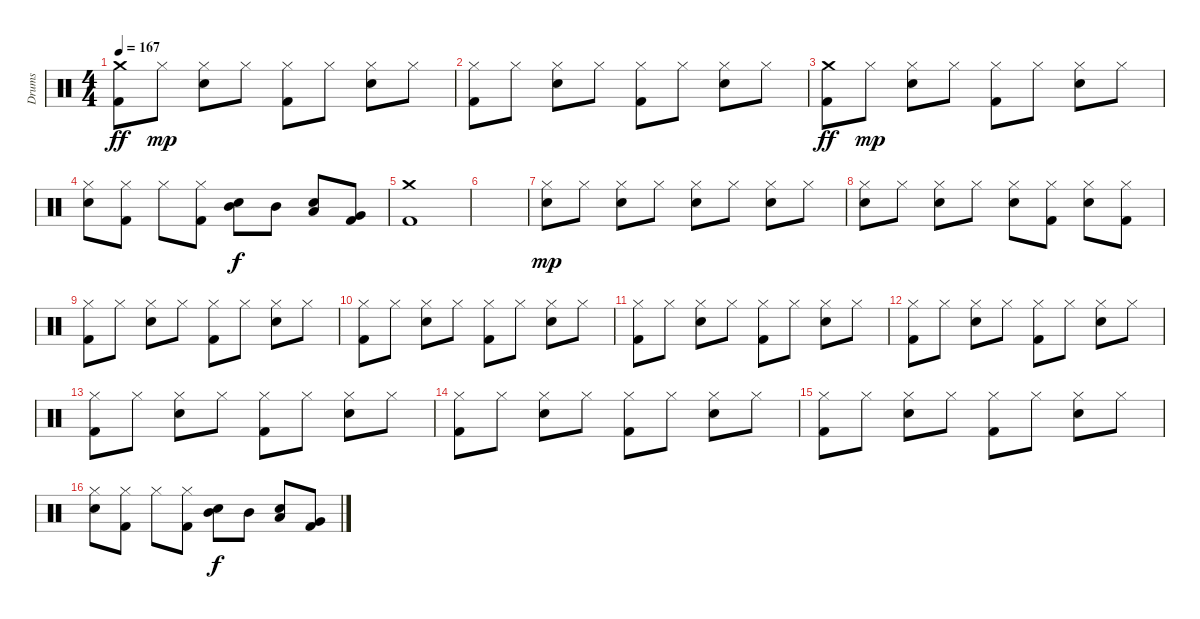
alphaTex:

\track ("Drums" "Drums") {instrument percussion}
\staff {score}
\articulation defaults
\ts (4 4)
\tempo 167
\clef neutral
\ks c
("Crash medium (hit)" "Kick (hit) 2").8{dy ff} "Hi-Hat (closed)".8{dy mp} ("Hi-Hat (closed)" "Snare (hit) 2").8 "Hi-Hat (closed)".8 ("Hi-Hat (closed)" "Kick (hit) 2").8 "Hi-Hat (closed)".8 ("Hi-Hat (closed)" "Snare (hit) 2").8 "Hi-Hat (closed)".8 |
("Hi-Hat (closed)" "Kick (hit) 2").8 "Hi-Hat (closed)".8 ("Hi-Hat (closed)" "Snare (hit) 2").8 "Hi-Hat (closed)".8 ("Hi-Hat (closed)" "Kick (hit) 2").8 "Hi-Hat (closed)".8 ("Hi-Hat (closed)" "Snare (hit) 2").8 "Hi-Hat (closed)".8 |
("Crash medium (hit)" "Kick (hit) 2").8{dy ff} "Hi-Hat (closed)".8{dy mp} ("Hi-Hat (closed)" "Snare (hit) 2").8 "Hi-Hat (closed)".8 ("Hi-Hat (closed)" "Kick (hit) 2").8 "Hi-Hat (closed)".8 ("Hi-Hat (closed)" "Snare (hit) 2").8 "Hi-Hat (closed)".8 |
("Hi-Hat (closed)" "Snare (hit) 2").8 ("Hi-Hat (closed)" "Kick (hit) 2").8 "Hi-Hat (closed)".8 ("Hi-Hat (closed)" "Kick (hit) 2").8 ("Mid Tom (hit)" "Snare (hit) 2").8{dy f} "Mid Tom (hit)".8 ("Low Tom (hit)" "Snare (hit) 2").8 ("Very Low Tom (hit)" "Kick (hit) 2").8 |
("Crash medium (hit)" "Kick (hit) 2").1 |
|
("Hi-Hat (closed)" "Snare (hit) 2").8{dy mp} "Hi-Hat (closed)".8 ("Hi-Hat (closed)" "Snare (hit) 2").8 "Hi-Hat (closed)".8 ("Hi-Hat (closed)" "Snare (hit) 2").8 "Hi-Hat (closed)".8 ("Hi-Hat (closed)" "Snare (hit) 2").8 "Hi-Hat (closed)".8 |
("Hi-Hat (closed)" "Snare (hit) 2").8 "Hi-Hat (closed)".8 ("Hi-Hat (closed)" "Snare (hit) 2").8 "Hi-Hat (closed)".8 ("Hi-Hat (closed)" "Snare (hit) 2").8 ("Hi-Hat (closed)" "Kick (hit) 2").8 ("Hi-Hat (closed)" "Snare (hit) 2").8 ("Hi-Hat (closed)" "Kick (hit) 2").8 |
("Hi-Hat (closed)" "Kick (hit) 2").8 "Hi-Hat (closed)".8 ("Hi-Hat (closed)" "Snare (hit) 2").8 "Hi-Hat (closed)".8 ("Hi-Hat (closed)" "Kick (hit) 2").8 "Hi-Hat (closed)".8 ("Hi-Hat (closed)" "Snare (hit) 2").8 "Hi-Hat (closed)".8 |
("Hi-Hat (closed)" "Kick (hit) 2").8 "Hi-Hat (closed)".8 ("Hi-Hat (closed)" "Snare (hit) 2").8 "Hi-Hat (closed)".8 ("Hi-Hat (closed)" "Kick (hit) 2").8 "Hi-Hat (closed)".8 ("Hi-Hat (closed)" "Snare (hit) 2").8 "Hi-Hat (closed)".8 |
("Hi-Hat (closed)" "Kick (hit) 2").8 "Hi-Hat (closed)".8 ("Hi-Hat (closed)" "Snare (hit) 2").8 "Hi-Hat (closed)".8 ("Hi-Hat (closed)" "Kick (hit) 2").8 "Hi-Hat (closed)".8 ("Hi-Hat (closed)" "Snare (hit) 2").8 "Hi-Hat (closed)".8 |
("Hi-Hat (closed)" "Kick (hit) 2").8 "Hi-Hat (closed)".8 ("Hi-Hat (closed)" "Snare (hit) 2").8 "Hi-Hat (closed)".8 ("Hi-Hat (closed)" "Kick (hit) 2").8 "Hi-Hat (closed)".8 ("Hi-Hat (closed)" "Snare (hit) 2").8 "Hi-Hat (closed)".8 |
("Hi-Hat (closed)" "Kick (hit) 2").8 "Hi-Hat (closed)".8 ("Hi-Hat (closed)" "Snare (hit) 2").8 "Hi-Hat (closed)".8 ("Hi-Hat (closed)" "Kick (hit) 2").8 "Hi-Hat (closed)".8 ("Hi-Hat (closed)" "Snare (hit) 2").8 "Hi-Hat (closed)".8 |
("Hi-Hat (closed)" "Kick (hit) 2").8 "Hi-Hat (closed)".8 ("Hi-Hat (closed)" "Snare (hit) 2").8 "Hi-Hat (closed)".8 ("Hi-Hat (closed)" "Kick (hit) 2").8 "Hi-Hat (closed)".8 ("Hi-Hat (closed)" "Snare (hit) 2").8 "Hi-Hat (closed)".8 |
("Hi-Hat (closed)" "Kick (hit) 2").8 "Hi-Hat (closed)".8 ("Hi-Hat (closed)" "Snare (hit) 2").8 "Hi-Hat (closed)".8 ("Hi-Hat (closed)" "Kick (hit) 2").8 "Hi-Hat (closed)".8 ("Hi-Hat (closed)" "Snare (hit) 2").8 "Hi-Hat (closed)".8 |
("Hi-Hat (closed)" "Snare (hit) 2").8 ("Hi-Hat (closed)" "Kick (hit) 2").8 "Hi-Hat (closed)".8 ("Hi-Hat (closed)" "Kick (hit) 2").8 ("Mid Tom (hit)" "Snare (hit) 2").8{dy f} "Mid Tom (hit)".8 ("Low Tom (hit)" "Snare (hit) 2").8 ("Very Low Tom (hit)" "Kick (hit) 2").8
